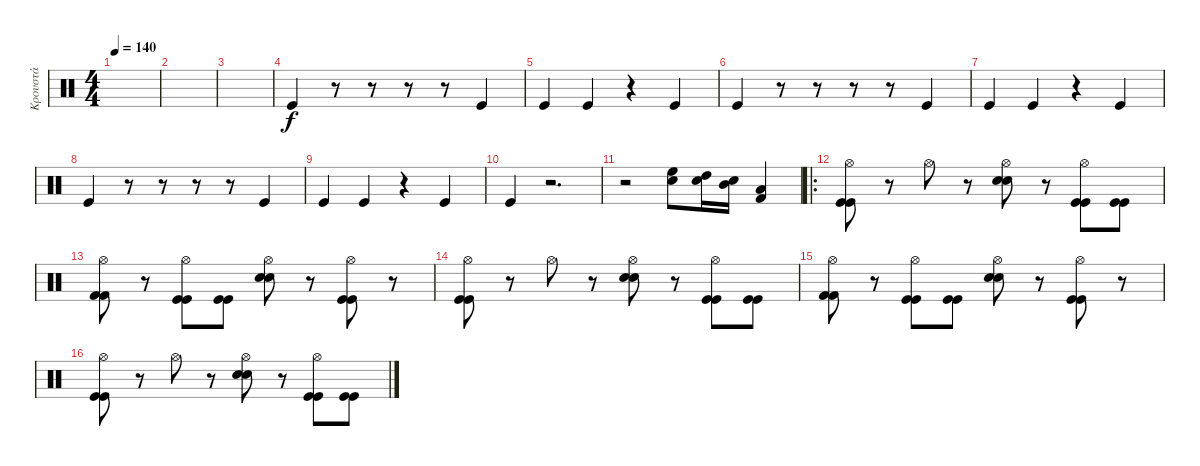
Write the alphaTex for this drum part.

\track ("Κρουστά" "Κρουστά") {instrument percussion}
\staff {score}
\articulation defaults
\ts (4 4)
\tempo 140
\clef neutral
\ks c
|
|
|
"Kick (hit)".4 r.8 r.8 r.8 r.8 "Kick (hit)".4 |
"Kick (hit)".4 "Kick (hit)".4 r.4 "Kick (hit)".4 |
"Kick (hit)".4 r.8 r.8 r.8 r.8 "Kick (hit)".4 |
"Kick (hit)".4 "Kick (hit)".4 r.4 "Kick (hit)".4 |
"Kick (hit)".4 r.8 r.8 r.8 r.8 "Kick (hit)".4 |
"Kick (hit)".4 "Kick (hit)".4 r.4 "Kick (hit)".4 |
"Kick (hit)".4 r.2{d} |
r.2 ("High Floor Tom (hit)" "Snare (hit) 2").8 ("High Tom (hit)" "Snare (hit) 2").16 ("Mid Tom (hit)" "Snare (hit) 2").16 ("Low Tom (hit)" "Kick (hit) 2").4 |
\ro
("Hi-Hat (open)" "Kick (hit)" "Kick (hit)").8 r.8 "Hi-Hat (open)".8 r.8 ("Hi-Hat (open)" "Electric Snare (hit)" "Electric Snare (hit)").8 r.8 ("Hi-Hat (open)" "Kick (hit)" "Kick (hit)").8 ("Kick (hit)" "Kick (hit)").8 |
("Hi-Hat (open)" "Kick (hit) 2" "Kick (hit) 2").8 r.8 ("Hi-Hat (open)" "Kick (hit)" "Kick (hit)").8 ("Kick (hit)" "Kick (hit)").8 ("Hi-Hat (open)" "Electric Snare (hit)" "Electric Snare (hit)").8 r.8 ("Hi-Hat (open)" "Kick (hit)" "Kick (hit)").8 r.8 |
("Hi-Hat (open)" "Kick (hit)" "Kick (hit)").8 r.8 "Hi-Hat (open)".8 r.8 ("Hi-Hat (open)" "Electric Snare (hit)" "Electric Snare (hit)").8 r.8 ("Hi-Hat (open)" "Kick (hit)" "Kick (hit)").8 ("Kick (hit)" "Kick (hit)").8 |
("Hi-Hat (open)" "Kick (hit) 2" "Kick (hit) 2").8 r.8 ("Hi-Hat (open)" "Kick (hit)" "Kick (hit)").8 ("Kick (hit)" "Kick (hit)").8 ("Hi-Hat (open)" "Electric Snare (hit)" "Electric Snare (hit)").8 r.8 ("Hi-Hat (open)" "Kick (hit)" "Kick (hit)").8 r.8 |
("Hi-Hat (open)" "Kick (hit)" "Kick (hit)").8 r.8 "Hi-Hat (open)".8 r.8 ("Hi-Hat (open)" "Electric Snare (hit)" "Electric Snare (hit)").8 r.8 ("Hi-Hat (open)" "Kick (hit)" "Kick (hit)").8 ("Kick (hit)" "Kick (hit)").8
